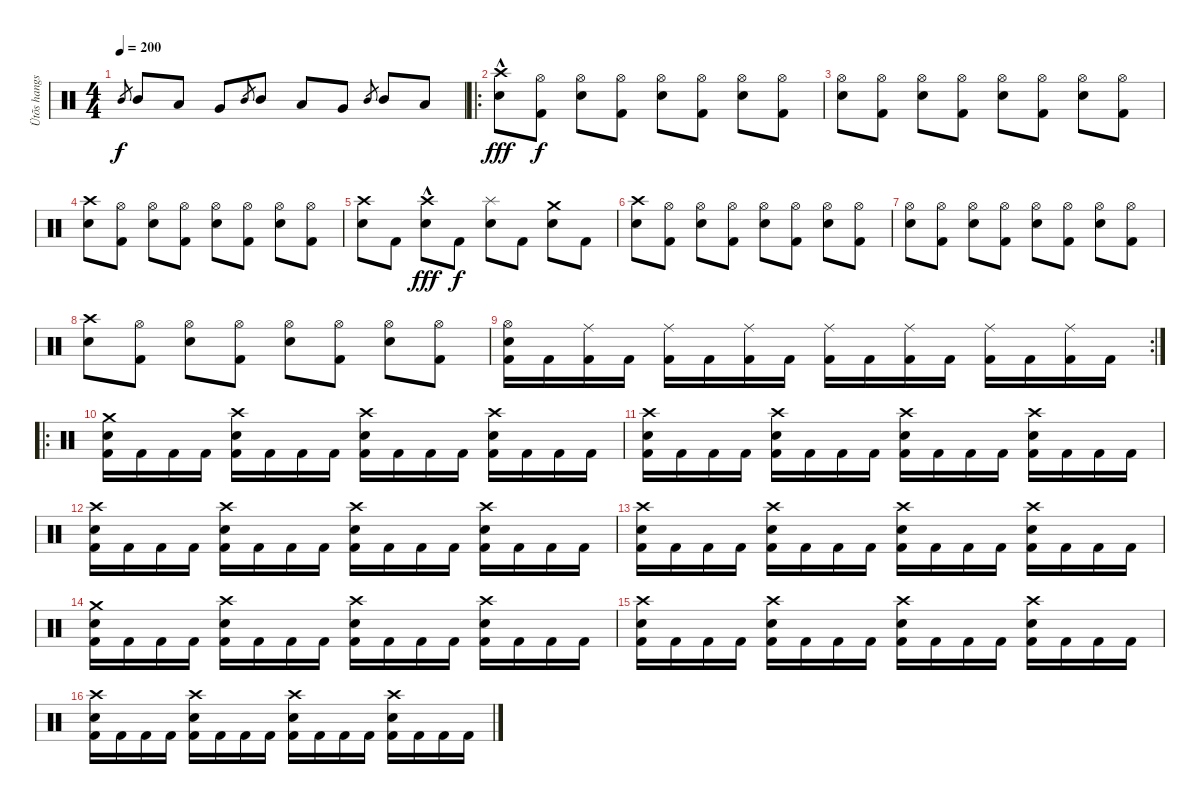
\track ("Ütõs hangszer" "Ütõs hangs") {instrument percussion}
\staff {score}
\articulation defaults
\ts (4 4)
\tempo 200
\clef neutral
\ks c "Mid Tom (hit)".8{gr dy f} "Mid Tom (hit)".8 "Low Tom (hit)".8 "Very Low Tom (hit)".8 "Mid Tom (hit)".8{gr} "Mid Tom (hit)".8 "Low Tom (hit)".8 "Very Low Tom (hit)".8 "Mid Tom (hit)".8{gr} "Mid Tom (hit)".8 "Low Tom (hit)".8
|
\ro
("Crash high (hit)"{hac} "Snare (hit) 2").8{dy fff} ("Hi-Hat (open)" "Kick (hit) 2").8{dy f} ("Hi-Hat (open)" "Snare (hit) 2").8 ("Hi-Hat (open)" "Kick (hit) 2").8 ("Hi-Hat (open)" "Snare (hit) 2").8 ("Hi-Hat (open)" "Kick (hit) 2").8 ("Hi-Hat (open)" "Snare (hit) 2").8 ("Hi-Hat (open)" "Kick (hit) 2").8 |
("Hi-Hat (open)" "Snare (hit) 2").8 ("Hi-Hat (open)" "Kick (hit) 2").8 ("Hi-Hat (open)" "Snare (hit) 2").8 ("Hi-Hat (open)" "Kick (hit) 2").8 ("Hi-Hat (open)" "Snare (hit) 2").8 ("Hi-Hat (open)" "Kick (hit) 2").8 ("Hi-Hat (open)" "Snare (hit) 2").8 ("Hi-Hat (open)" "Kick (hit) 2").8 |
("Crash high (hit)" "Snare (hit) 2").8 ("Hi-Hat (open)" "Kick (hit) 2").8 ("Hi-Hat (open)" "Snare (hit) 2").8 ("Hi-Hat (open)" "Kick (hit) 2").8 ("Hi-Hat (open)" "Snare (hit) 2").8 ("Hi-Hat (open)" "Kick (hit) 2").8 ("Hi-Hat (open)" "Snare (hit) 2").8 ("Hi-Hat (open)" "Kick (hit) 2").8 |
("Crash high (hit)" "Snare (hit) 2").8 "Kick (hit) 2".8 ("Crash high (hit)"{hac} "Snare (hit) 2").8{dy fff} "Kick (hit) 2".8{dy f} ("Splash (hit)" "Snare (hit) 2").8 "Kick (hit) 2".8 ("Crash medium (hit)" "Snare (hit) 2").8 "Kick (hit) 2".8 |
("Crash high (hit)" "Snare (hit) 2").8 ("Hi-Hat (open)" "Kick (hit) 2").8 ("Hi-Hat (open)" "Snare (hit) 2").8 ("Hi-Hat (open)" "Kick (hit) 2").8 ("Hi-Hat (open)" "Snare (hit) 2").8 ("Hi-Hat (open)" "Kick (hit) 2").8 ("Hi-Hat (open)" "Snare (hit) 2").8 ("Hi-Hat (open)" "Kick (hit) 2").8 |
("Hi-Hat (open)" "Snare (hit) 2").8 ("Hi-Hat (open)" "Kick (hit) 2").8 ("Hi-Hat (open)" "Snare (hit) 2").8 ("Hi-Hat (open)" "Kick (hit) 2").8 ("Hi-Hat (open)" "Snare (hit) 2").8 ("Hi-Hat (open)" "Kick (hit) 2").8 ("Hi-Hat (open)" "Snare (hit) 2").8 ("Hi-Hat (open)" "Kick (hit) 2").8 |
("Crash high (hit)" "Snare (hit) 2").8 ("Hi-Hat (open)" "Kick (hit) 2").8 ("Hi-Hat (open)" "Snare (hit) 2").8 ("Hi-Hat (open)" "Kick (hit) 2").8 ("Hi-Hat (open)" "Snare (hit) 2").8 ("Hi-Hat (open)" "Kick (hit) 2").8 ("Hi-Hat (open)" "Snare (hit) 2").8 ("Hi-Hat (open)" "Kick (hit) 2").8 |
\rc 2
("Hi-Hat (open)" "Snare (hit) 2" "Kick (hit) 2").16 "Kick (hit) 2".16 ("Ride (middle)" "Kick (hit) 2").16 "Kick (hit) 2".16 ("Ride (middle)" "Kick (hit) 2").16 "Kick (hit) 2".16 ("Ride (middle)" "Kick (hit) 2").16 "Kick (hit) 2".16 ("Ride (middle)" "Kick (hit) 2").16 "Kick (hit) 2".16 ("Ride (middle)" "Kick (hit) 2").16 "Kick (hit) 2".16 ("Ride (middle)" "Kick (hit) 2").16 "Kick (hit) 2".16 ("Ride (middle)" "Kick (hit) 2").16 "Kick (hit) 2".16 |
\ro
("Crash medium (hit)" "Snare (hit) 2" "Kick (hit) 2").16 "Kick (hit) 2".16 "Kick (hit) 2".16 "Kick (hit) 2".16 ("Crash high (hit)" "Snare (hit) 2" "Kick (hit) 2").16 "Kick (hit) 2".16 "Kick (hit) 2".16 "Kick (hit) 2".16 ("Crash high (hit)" "Snare (hit) 2" "Kick (hit) 2").16 "Kick (hit) 2".16 "Kick (hit) 2".16 "Kick (hit) 2".16 ("Crash high (hit)" "Snare (hit) 2" "Kick (hit) 2").16 "Kick (hit) 2".16 "Kick (hit) 2".16 "Kick (hit) 2".16 |
("Crash high (hit)" "Snare (hit) 2" "Kick (hit) 2").16 "Kick (hit) 2".16 "Kick (hit) 2".16 "Kick (hit) 2".16 ("Crash high (hit)" "Snare (hit) 2" "Kick (hit) 2").16 "Kick (hit) 2".16 "Kick (hit) 2".16 "Kick (hit) 2".16 ("Crash high (hit)" "Snare (hit) 2" "Kick (hit) 2").16 "Kick (hit) 2".16 "Kick (hit) 2".16 "Kick (hit) 2".16 ("Crash high (hit)" "Snare (hit) 2" "Kick (hit) 2").16 "Kick (hit) 2".16 "Kick (hit) 2".16 "Kick (hit) 2".16 |
("Crash high (hit)" "Snare (hit) 2" "Kick (hit) 2").16 "Kick (hit) 2".16 "Kick (hit) 2".16 "Kick (hit) 2".16 ("Crash high (hit)" "Snare (hit) 2" "Kick (hit) 2").16 "Kick (hit) 2".16 "Kick (hit) 2".16 "Kick (hit) 2".16 ("Crash high (hit)" "Snare (hit) 2" "Kick (hit) 2").16 "Kick (hit) 2".16 "Kick (hit) 2".16 "Kick (hit) 2".16 ("Crash high (hit)" "Snare (hit) 2" "Kick (hit) 2").16 "Kick (hit) 2".16 "Kick (hit) 2".16 "Kick (hit) 2".16 |
("Crash high (hit)" "Snare (hit) 2" "Kick (hit) 2").16 "Kick (hit) 2".16 "Kick (hit) 2".16 "Kick (hit) 2".16 ("Crash high (hit)" "Snare (hit) 2" "Kick (hit) 2").16 "Kick (hit) 2".16 "Kick (hit) 2".16 "Kick (hit) 2".16 ("Crash high (hit)" "Snare (hit) 2" "Kick (hit) 2").16 "Kick (hit) 2".16 "Kick (hit) 2".16 "Kick (hit) 2".16 ("Crash high (hit)" "Snare (hit) 2" "Kick (hit) 2").16 "Kick (hit) 2".16 "Kick (hit) 2".16 "Kick (hit) 2".16 |
("Crash medium (hit)" "Snare (hit) 2" "Kick (hit) 2").16 "Kick (hit) 2".16 "Kick (hit) 2".16 "Kick (hit) 2".16 ("Crash high (hit)" "Snare (hit) 2" "Kick (hit) 2").16 "Kick (hit) 2".16 "Kick (hit) 2".16 "Kick (hit) 2".16 ("Crash high (hit)" "Snare (hit) 2" "Kick (hit) 2").16 "Kick (hit) 2".16 "Kick (hit) 2".16 "Kick (hit) 2".16 ("Crash high (hit)" "Snare (hit) 2" "Kick (hit) 2").16 "Kick (hit) 2".16 "Kick (hit) 2".16 "Kick (hit) 2".16 |
("Crash high (hit)" "Snare (hit) 2" "Kick (hit) 2").16 "Kick (hit) 2".16 "Kick (hit) 2".16 "Kick (hit) 2".16 ("Crash high (hit)" "Snare (hit) 2" "Kick (hit) 2").16 "Kick (hit) 2".16 "Kick (hit) 2".16 "Kick (hit) 2".16 ("Crash high (hit)" "Snare (hit) 2" "Kick (hit) 2").16 "Kick (hit) 2".16 "Kick (hit) 2".16 "Kick (hit) 2".16 ("Crash high (hit)" "Snare (hit) 2" "Kick (hit) 2").16 "Kick (hit) 2".16 "Kick (hit) 2".16 "Kick (hit) 2".16 |
("Crash high (hit)" "Snare (hit) 2" "Kick (hit) 2").16 "Kick (hit) 2".16 "Kick (hit) 2".16 "Kick (hit) 2".16 ("Crash high (hit)" "Snare (hit) 2" "Kick (hit) 2").16 "Kick (hit) 2".16 "Kick (hit) 2".16 "Kick (hit) 2".16 ("Crash high (hit)" "Snare (hit) 2" "Kick (hit) 2").16 "Kick (hit) 2".16 "Kick (hit) 2".16 "Kick (hit) 2".16 ("Crash high (hit)" "Snare (hit) 2" "Kick (hit) 2").16 "Kick (hit) 2".16 "Kick (hit) 2".16 "Kick (hit) 2".16
